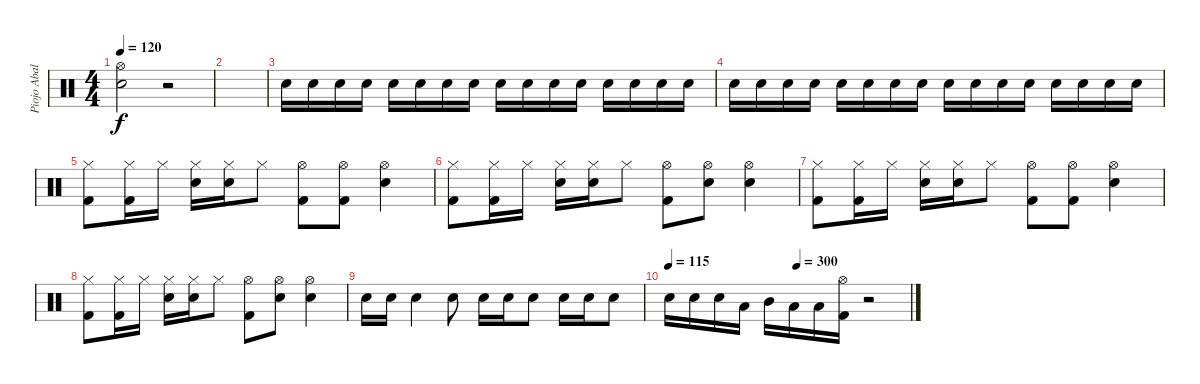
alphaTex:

\track ("Piojo Abalos" "Piojo Abal") {instrument percussion}
\staff {score}
\articulation defaults
\ts (4 4)
\tempo 120
\clef neutral
\ks c
("Hi-Hat (open)" "Electric Snare (hit)").2{dy f volume 11} r.2{volume 5} |
|
"Electric Snare (hit)".16{volume 12} "Electric Snare (hit)".16 "Electric Snare (hit)".16 "Electric Snare (hit)".16 "Electric Snare (hit)".16 "Electric Snare (hit)".16 "Electric Snare (hit)".16 "Electric Snare (hit)".16 "Electric Snare (hit)".16 "Electric Snare (hit)".16 "Electric Snare (hit)".16 "Electric Snare (hit)".16 "Electric Snare (hit)".16 "Electric Snare (hit)".16 "Electric Snare (hit)".16 "Electric Snare (hit)".16 |
"Electric Snare (hit)".16 "Electric Snare (hit)".16 "Electric Snare (hit)".16 "Electric Snare (hit)".16 "Electric Snare (hit)".16 "Electric Snare (hit)".16 "Electric Snare (hit)".16 "Electric Snare (hit)".16 "Electric Snare (hit)".16 "Electric Snare (hit)".16 "Electric Snare (hit)".16 "Electric Snare (hit)".16 "Electric Snare (hit)".16 "Electric Snare (hit)".16 "Electric Snare (hit)".16 "Electric Snare (hit)".16 |
("Hi-Hat (closed)" "Kick (hit) 2").8 ("Hi-Hat (closed)" "Kick (hit) 2").16 "Hi-Hat (closed)".16 ("Hi-Hat (closed)" "Electric Snare (hit)").16 ("Hi-Hat (closed)" "Electric Snare (hit)").16 "Hi-Hat (closed)".8 ("Hi-Hat (open)" "Kick (hit) 2").8 ("Hi-Hat (open)" "Kick (hit) 2").8 ("Hi-Hat (open)" "Electric Snare (hit)").4 |
("Hi-Hat (closed)" "Kick (hit) 2").8 ("Hi-Hat (closed)" "Kick (hit) 2").16 "Hi-Hat (closed)".16 ("Hi-Hat (closed)" "Electric Snare (hit)").16 ("Hi-Hat (closed)" "Electric Snare (hit)").16 "Hi-Hat (closed)".8 ("Hi-Hat (open)" "Kick (hit) 2").8 ("Hi-Hat (open)" "Electric Snare (hit)").8 ("Hi-Hat (open)" "Electric Snare (hit)").4 |
("Hi-Hat (closed)" "Kick (hit) 2").8 ("Hi-Hat (closed)" "Kick (hit) 2").16 "Hi-Hat (closed)".16 ("Hi-Hat (closed)" "Electric Snare (hit)").16 ("Hi-Hat (closed)" "Electric Snare (hit)").16 "Hi-Hat (closed)".8 ("Hi-Hat (open)" "Kick (hit) 2").8 ("Hi-Hat (open)" "Kick (hit) 2").8 ("Hi-Hat (open)" "Electric Snare (hit)").4 |
("Hi-Hat (closed)" "Kick (hit) 2").8 ("Hi-Hat (closed)" "Kick (hit) 2").16 "Hi-Hat (closed)".16 ("Hi-Hat (closed)" "Electric Snare (hit)").16 ("Hi-Hat (closed)" "Electric Snare (hit)").16 "Hi-Hat (closed)".8 ("Hi-Hat (open)" "Kick (hit) 2").8 ("Hi-Hat (open)" "Electric Snare (hit)").8 ("Hi-Hat (open)" "Electric Snare (hit)").4 |
"Electric Snare (hit)".16 "Electric Snare (hit)".16 "Electric Snare (hit)".4 "Electric Snare (hit)".8 "Electric Snare (hit)".16 "Electric Snare (hit)".16 "Electric Snare (hit)".8 "Electric Snare (hit)".16 "Electric Snare (hit)".16 "Electric Snare (hit)".8 |
\tempo 115
\tempo (300 0.53125)
"Electric Snare (hit)".16 "Electric Snare (hit)".16 "Electric Snare (hit)".16 "Low Tom (hit)".16 "Mid Tom (hit)".16 "Low Tom (hit)".16 "Low Tom (hit)".16 ("Hi-Hat (open)" "Kick (hit) 2").16 r.2
